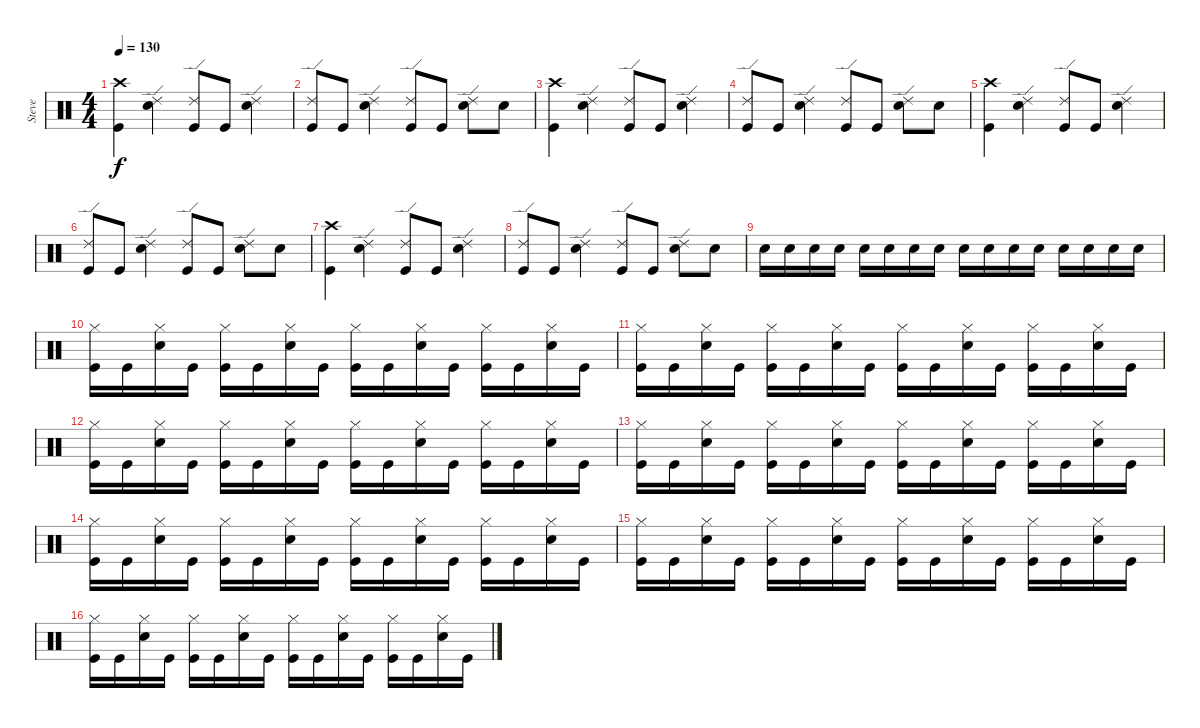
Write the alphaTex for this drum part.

\track ("Steve" "Steve") {instrument percussion}
\staff {score}
\articulation defaults
\ts (4 4)
\tempo 130
\clef neutral
\ks c
("Crash high (hit)" "Kick (hit)").4{dy f} ("Ride (edge) 2" "Snare (hit) 2").4 ("Ride (edge) 2" "Kick (hit)").8 "Kick (hit)".8 ("Ride (edge) 2" "Snare (hit) 2").4 |
("Ride (edge) 2" "Kick (hit)").8 "Kick (hit)".8 ("Ride (edge) 2" "Snare (hit) 2").4 ("Ride (edge) 2" "Kick (hit)").8 "Kick (hit)".8 ("Ride (edge) 2" "Snare (hit) 2").8 "Snare (hit) 2".8 |
("Crash high (hit)" "Kick (hit)").4 ("Ride (edge) 2" "Snare (hit) 2").4 ("Ride (edge) 2" "Kick (hit)").8 "Kick (hit)".8 ("Ride (edge) 2" "Snare (hit) 2").4 |
("Ride (edge) 2" "Kick (hit)").8 "Kick (hit)".8 ("Ride (edge) 2" "Snare (hit) 2").4 ("Ride (edge) 2" "Kick (hit)").8 "Kick (hit)".8 ("Ride (edge) 2" "Snare (hit) 2").8 "Snare (hit) 2".8 |
("Crash high (hit)" "Kick (hit)").4 ("Ride (edge) 2" "Snare (hit) 2").4 ("Ride (edge) 2" "Kick (hit)").8 "Kick (hit)".8 ("Ride (edge) 2" "Snare (hit) 2").4 |
("Ride (edge) 2" "Kick (hit)").8 "Kick (hit)".8 ("Ride (edge) 2" "Snare (hit) 2").4 ("Ride (edge) 2" "Kick (hit)").8 "Kick (hit)".8 ("Ride (edge) 2" "Snare (hit) 2").8 "Snare (hit) 2".8 |
("Crash high (hit)" "Kick (hit)").4 ("Ride (edge) 2" "Snare (hit) 2").4 ("Ride (edge) 2" "Kick (hit)").8 "Kick (hit)".8 ("Ride (edge) 2" "Snare (hit) 2").4 |
("Ride (edge) 2" "Kick (hit)").8 "Kick (hit)".8 ("Ride (edge) 2" "Snare (hit) 2").4 ("Ride (edge) 2" "Kick (hit)").8 "Kick (hit)".8 ("Ride (edge) 2" "Snare (hit) 2").8 "Snare (hit) 2".8 |
"Snare (hit) 2".16 "Snare (hit) 2".16 "Snare (hit) 2".16 "Snare (hit) 2".16 "Snare (hit) 2".16 "Snare (hit) 2".16 "Snare (hit) 2".16 "Snare (hit) 2".16 "Snare (hit) 2".16 "Snare (hit) 2".16 "Snare (hit) 2".16 "Snare (hit) 2".16 "Snare (hit) 2".16 "Snare (hit) 2".16 "Snare (hit) 2".16 "Snare (hit) 2".16 |
("Hi-Hat (closed)" "Kick (hit)").16 "Kick (hit)".16 ("Hi-Hat (closed)" "Snare (hit) 2").16 "Kick (hit)".16 ("Hi-Hat (closed)" "Kick (hit)").16 "Kick (hit)".16 ("Hi-Hat (closed)" "Snare (hit) 2").16 "Kick (hit)".16 ("Hi-Hat (closed)" "Kick (hit)").16 "Kick (hit)".16 ("Hi-Hat (closed)" "Snare (hit) 2").16 "Kick (hit)".16 ("Hi-Hat (closed)" "Kick (hit)").16 "Kick (hit)".16 ("Hi-Hat (closed)" "Snare (hit) 2").16 "Kick (hit)".16 |
("Hi-Hat (closed)" "Kick (hit)").16 "Kick (hit)".16 ("Hi-Hat (closed)" "Snare (hit) 2").16 "Kick (hit)".16 ("Hi-Hat (closed)" "Kick (hit)").16 "Kick (hit)".16 ("Hi-Hat (closed)" "Snare (hit) 2").16 "Kick (hit)".16 ("Hi-Hat (closed)" "Kick (hit)").16 "Kick (hit)".16 ("Hi-Hat (closed)" "Snare (hit) 2").16 "Kick (hit)".16 ("Hi-Hat (closed)" "Kick (hit)").16 "Kick (hit)".16 ("Hi-Hat (closed)" "Snare (hit) 2").16 "Kick (hit)".16 |
("Hi-Hat (closed)" "Kick (hit)").16 "Kick (hit)".16 ("Hi-Hat (closed)" "Snare (hit) 2").16 "Kick (hit)".16 ("Hi-Hat (closed)" "Kick (hit)").16 "Kick (hit)".16 ("Hi-Hat (closed)" "Snare (hit) 2").16 "Kick (hit)".16 ("Hi-Hat (closed)" "Kick (hit)").16 "Kick (hit)".16 ("Hi-Hat (closed)" "Snare (hit) 2").16 "Kick (hit)".16 ("Hi-Hat (closed)" "Kick (hit)").16 "Kick (hit)".16 ("Hi-Hat (closed)" "Snare (hit) 2").16 "Kick (hit)".16 |
("Hi-Hat (closed)" "Kick (hit)").16 "Kick (hit)".16 ("Hi-Hat (closed)" "Snare (hit) 2").16 "Kick (hit)".16 ("Hi-Hat (closed)" "Kick (hit)").16 "Kick (hit)".16 ("Hi-Hat (closed)" "Snare (hit) 2").16 "Kick (hit)".16 ("Hi-Hat (closed)" "Kick (hit)").16 "Kick (hit)".16 ("Hi-Hat (closed)" "Snare (hit) 2").16 "Kick (hit)".16 ("Hi-Hat (closed)" "Kick (hit)").16 "Kick (hit)".16 ("Hi-Hat (closed)" "Snare (hit) 2").16 "Kick (hit)".16 |
("Hi-Hat (closed)" "Kick (hit)").16 "Kick (hit)".16 ("Hi-Hat (closed)" "Snare (hit) 2").16 "Kick (hit)".16 ("Hi-Hat (closed)" "Kick (hit)").16 "Kick (hit)".16 ("Hi-Hat (closed)" "Snare (hit) 2").16 "Kick (hit)".16 ("Hi-Hat (closed)" "Kick (hit)").16 "Kick (hit)".16 ("Hi-Hat (closed)" "Snare (hit) 2").16 "Kick (hit)".16 ("Hi-Hat (closed)" "Kick (hit)").16 "Kick (hit)".16 ("Hi-Hat (closed)" "Snare (hit) 2").16 "Kick (hit)".16 |
("Hi-Hat (closed)" "Kick (hit)").16 "Kick (hit)".16 ("Hi-Hat (closed)" "Snare (hit) 2").16 "Kick (hit)".16 ("Hi-Hat (closed)" "Kick (hit)").16 "Kick (hit)".16 ("Hi-Hat (closed)" "Snare (hit) 2").16 "Kick (hit)".16 ("Hi-Hat (closed)" "Kick (hit)").16 "Kick (hit)".16 ("Hi-Hat (closed)" "Snare (hit) 2").16 "Kick (hit)".16 ("Hi-Hat (closed)" "Kick (hit)").16 "Kick (hit)".16 ("Hi-Hat (closed)" "Snare (hit) 2").16 "Kick (hit)".16 |
("Hi-Hat (closed)" "Kick (hit)").16 "Kick (hit)".16 ("Hi-Hat (closed)" "Snare (hit) 2").16 "Kick (hit)".16 ("Hi-Hat (closed)" "Kick (hit)").16 "Kick (hit)".16 ("Hi-Hat (closed)" "Snare (hit) 2").16 "Kick (hit)".16 ("Hi-Hat (closed)" "Kick (hit)").16 "Kick (hit)".16 ("Hi-Hat (closed)" "Snare (hit) 2").16 "Kick (hit)".16 ("Hi-Hat (closed)" "Kick (hit)").16 "Kick (hit)".16 ("Hi-Hat (closed)" "Snare (hit) 2").16 "Kick (hit)".16
